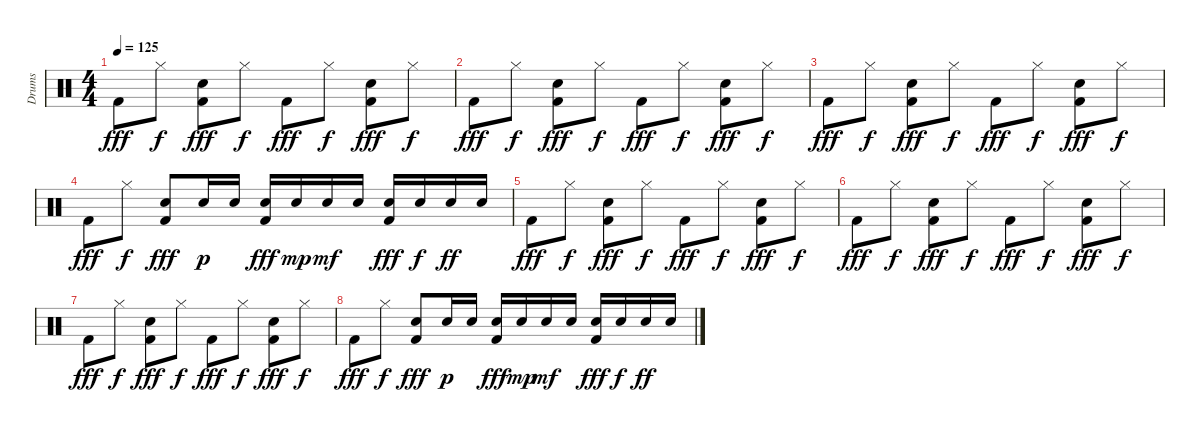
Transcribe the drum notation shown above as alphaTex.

\track ("Drums" "Drums") {instrument percussion}
\staff {score}
\articulation defaults
\ts (4 4)
\tempo 125
\clef neutral
\ks c "Kick (hit) 2".8{dy fff} "Hi-Hat (closed)".8{dy f}
("Snare (hit) 2" "Kick (hit) 2").8{dy fff} "Hi-Hat (closed)".8{dy f} "Kick (hit) 2".8{dy fff} "Hi-Hat (closed)".8{dy f} ("Snare (hit) 2" "Kick (hit) 2").8{dy fff} "Hi-Hat (closed)".8{dy f} |
"Kick (hit) 2".8{dy fff} "Hi-Hat (closed)".8{dy f} ("Snare (hit) 2" "Kick (hit) 2").8{dy fff} "Hi-Hat (closed)".8{dy f} "Kick (hit) 2".8{dy fff} "Hi-Hat (closed)".8{dy f} ("Snare (hit) 2" "Kick (hit) 2").8{dy fff} "Hi-Hat (closed)".8{dy f} |
"Kick (hit) 2".8{dy fff} "Hi-Hat (closed)".8{dy f} ("Snare (hit) 2" "Kick (hit) 2").8{dy fff} "Hi-Hat (closed)".8{dy f} "Kick (hit) 2".8{dy fff} "Hi-Hat (closed)".8{dy f} ("Snare (hit) 2" "Kick (hit) 2").8{dy fff} "Hi-Hat (closed)".8{dy f} |
"Kick (hit) 2".8{dy fff} "Hi-Hat (closed)".8{dy f} ("Snare (hit) 2" "Kick (hit) 2").8{dy fff} "Snare (hit) 2".16{dy p} "Snare (hit) 2".16 ("Snare (hit) 2" "Kick (hit) 2").16{dy fff} "Snare (hit) 2".16{dy mp} "Snare (hit) 2".16{dy mf} "Snare (hit) 2".16 ("Snare (hit) 2" "Kick (hit) 2").16{dy fff} "Snare (hit) 2".16{dy f} "Snare (hit) 2".16{dy ff} "Snare (hit) 2".16 |
"Kick (hit) 2".8{dy fff volume 0} "Hi-Hat (closed)".8{dy f} ("Snare (hit) 2" "Kick (hit) 2").8{dy fff} "Hi-Hat (closed)".8{dy f} "Kick (hit) 2".8{dy fff} "Hi-Hat (closed)".8{dy f} ("Snare (hit) 2" "Kick (hit) 2").8{dy fff} "Hi-Hat (closed)".8{dy f} |
"Kick (hit) 2".8{dy fff} "Hi-Hat (closed)".8{dy f} ("Snare (hit) 2" "Kick (hit) 2").8{dy fff} "Hi-Hat (closed)".8{dy f} "Kick (hit) 2".8{dy fff} "Hi-Hat (closed)".8{dy f} ("Snare (hit) 2" "Kick (hit) 2").8{dy fff} "Hi-Hat (closed)".8{dy f} |
"Kick (hit) 2".8{dy fff} "Hi-Hat (closed)".8{dy f} ("Snare (hit) 2" "Kick (hit) 2").8{dy fff} "Hi-Hat (closed)".8{dy f} "Kick (hit) 2".8{dy fff} "Hi-Hat (closed)".8{dy f} ("Snare (hit) 2" "Kick (hit) 2").8{dy fff} "Hi-Hat (closed)".8{dy f} |
"Kick (hit) 2".8{dy fff} "Hi-Hat (closed)".8{dy f} ("Snare (hit) 2" "Kick (hit) 2").8{dy fff} "Snare (hit) 2".16{dy p} "Snare (hit) 2".16 ("Snare (hit) 2" "Kick (hit) 2").16{dy fff} "Snare (hit) 2".16{dy mp} "Snare (hit) 2".16{dy mf} "Snare (hit) 2".16 ("Snare (hit) 2" "Kick (hit) 2").16{dy fff} "Snare (hit) 2".16{dy f} "Snare (hit) 2".16{dy ff} "Snare (hit) 2".16
